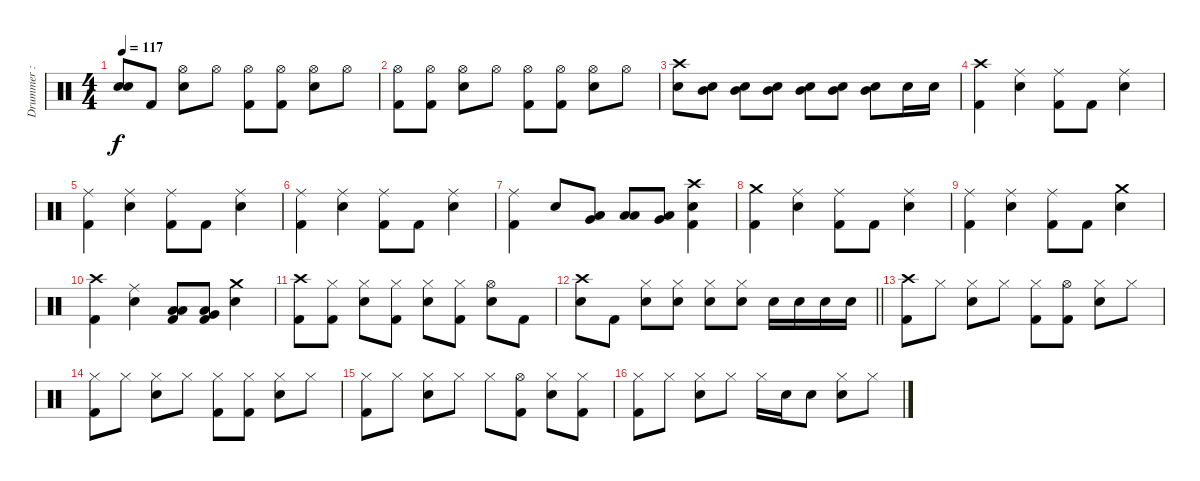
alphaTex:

\track ("Drummer : Tainaka Ritsu - San" "Drummer : ") {instrument percussion}
\staff {score}
\articulation defaults
\ts (4 4)
\tempo 117
\clef neutral
\ks c
("Snare (hit)"{t} "Snare (hit)"{t}).8{dy f} "Kick (hit) 2".8 ("Hi-Hat (open)" "Snare (hit) 2").8 "Hi-Hat (open)".8 ("Hi-Hat (open)" "Kick (hit) 2").8 ("Hi-Hat (open)" "Kick (hit) 2").8 ("Hi-Hat (open)" "Snare (hit) 2").8 "Hi-Hat (open)".8 |
("Hi-Hat (open)" "Kick (hit) 2").8 ("Hi-Hat (open)" "Kick (hit) 2").8 ("Hi-Hat (open)" "Snare (hit) 2").8 "Hi-Hat (open)".8 ("Hi-Hat (open)" "Kick (hit) 2").8 ("Hi-Hat (open)" "Kick (hit) 2").8 ("Hi-Hat (open)" "Snare (hit) 2").8 "Hi-Hat (open)".8 |
("Crash high (hit)" "Snare (hit) 2").8 ("Mid Tom (hit)" "Snare (hit) 2").8 ("Mid Tom (hit)" "Snare (hit) 2").8 ("Mid Tom (hit)" "Snare (hit) 2").8 ("Mid Tom (hit)" "Snare (hit) 2").8 ("Mid Tom (hit)" "Snare (hit) 2").8 ("Mid Tom (hit)" "Snare (hit) 2").8 "Snare (hit) 2".16 "Snare (hit) 2".16 |
("Crash high (hit)" "Kick (hit) 2").4 ("Ride (middle)" "Snare (hit) 2").4 ("Ride (middle)" "Kick (hit) 2").8 "Kick (hit) 2".8 ("Ride (middle)" "Snare (hit) 2").4 |
("Ride (middle)" "Kick (hit) 2").4 ("Ride (middle)" "Snare (hit) 2").4 ("Ride (middle)" "Kick (hit) 2").8 "Kick (hit) 2".8 ("Ride (middle)" "Snare (hit) 2").4 |
("Ride (middle)" "Kick (hit) 2").4 ("Ride (middle)" "Snare (hit) 2").4 ("Ride (middle)" "Kick (hit) 2").8 "Kick (hit) 2".8 ("Ride (middle)" "Snare (hit) 2").4 |
("Ride (middle)" "Kick (hit) 2").4 "Snare (hit) 2".8 ("Low Tom (hit)" "Very Low Tom (hit)").8 ("Low Floor Tom (hit)" "Low Tom (hit)").8 ("Low Floor Tom (hit)" "Very Low Tom (hit)").8 ("Crash high (hit)" "Snare (hit) 2" "Kick (hit) 2").4 |
("Crash medium (hit)" "Kick (hit) 2").4 ("Ride (middle)" "Snare (hit) 2").4 ("Ride (middle)" "Kick (hit) 2").8 "Kick (hit) 2".8 ("Ride (middle)" "Snare (hit) 2").4 |
("Ride (middle)" "Kick (hit) 2").4 ("Ride (middle)" "Snare (hit) 2").4 ("Ride (middle)" "Kick (hit) 2").8 "Kick (hit) 2".8 ("Crash medium (hit)" "Snare (hit) 2").4 |
("Crash high (hit)" "Kick (hit) 2").4 ("Ride (middle)" "Snare (hit) 2").4 ("Low Floor Tom (hit)" "Low Tom (hit)" "Kick (hit) 2").8 ("Low Floor Tom (hit)" "Very Low Tom (hit)" "Kick (hit) 2").8 ("Crash medium (hit)" "Snare (hit) 2").4 |
("Crash high (hit)" "Kick (hit) 2").8 ("Hi-Hat (closed)" "Kick (hit) 2").8 ("Hi-Hat (closed)" "Snare (hit) 2").8 ("Hi-Hat (closed)" "Kick (hit) 2").8 ("Hi-Hat (closed)" "Snare (hit) 2").8 ("Hi-Hat (closed)" "Kick (hit) 2").8 ("Hi-Hat (open)" "Snare (hit) 2").8 "Kick (hit) 2".8 |
\barLineRight lightlight
("Crash high (hit)" "Snare (hit) 2").8 "Kick (hit) 2".8 ("Hi-Hat (closed)" "Snare (hit) 2").8 ("Hi-Hat (closed)" "Snare (hit) 2").8 ("Hi-Hat (closed)" "Snare (hit) 2").8 ("Hi-Hat (closed)" "Snare (hit) 2").8 "Snare (hit) 2".16 "Snare (hit) 2".16 "Snare (hit) 2".16 "Snare (hit) 2".16 |
("Crash high (hit)" "Kick (hit) 2").8 "Hi-Hat (closed)".8 ("Hi-Hat (closed)" "Snare (hit) 2").8 "Hi-Hat (closed)".8 ("Hi-Hat (closed)" "Kick (hit) 2").8 ("Hi-Hat (open)" "Kick (hit) 2").8 ("Hi-Hat (closed)" "Snare (hit) 2").8 "Hi-Hat (closed)".8 |
("Hi-Hat (closed)" "Kick (hit) 2").8 "Hi-Hat (closed)".8 ("Hi-Hat (closed)" "Snare (hit) 2").8 "Hi-Hat (closed)".8 ("Hi-Hat (closed)" "Kick (hit) 2").8 ("Hi-Hat (closed)" "Kick (hit) 2").8 ("Hi-Hat (closed)" "Snare (hit) 2").8 "Hi-Hat (closed)".8 |
("Hi-Hat (closed)" "Kick (hit) 2").8 "Hi-Hat (closed)".8 ("Hi-Hat (closed)" "Snare (hit) 2").8 "Hi-Hat (closed)".8 "Hi-Hat (closed)".8 ("Hi-Hat (open)" "Kick (hit) 2").8 ("Hi-Hat (closed)" "Snare (hit) 2").8 ("Hi-Hat (closed)" "Kick (hit) 2").8 |
("Hi-Hat (closed)" "Kick (hit) 2").8 "Hi-Hat (closed)".8 ("Hi-Hat (closed)" "Snare (hit) 2").8 "Hi-Hat (closed)".8 "Hi-Hat (closed)".16 "Snare (hit) 2".16 "Snare (hit) 2".8 ("Hi-Hat (closed)" "Snare (hit) 2").8 "Hi-Hat (closed)".8
